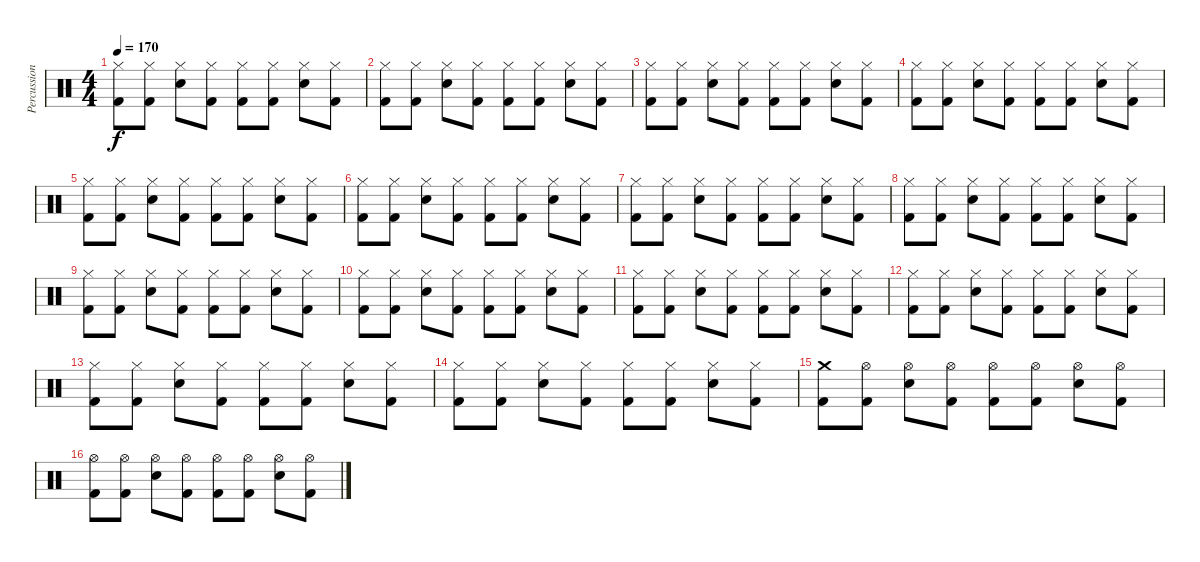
\track ("Percussion" "Percussion") {instrument percussion}
\staff {score}
\articulation defaults
\ts (4 4)
\tempo 170
\clef neutral
\ks c
("Hi-Hat (closed)" "Kick (hit) 2").8{dy f} ("Hi-Hat (closed)" "Kick (hit) 2").8 ("Hi-Hat (closed)" "Snare (hit) 2").8 ("Hi-Hat (closed)" "Kick (hit) 2").8 ("Hi-Hat (closed)" "Kick (hit) 2").8 ("Hi-Hat (closed)" "Kick (hit) 2").8 ("Hi-Hat (closed)" "Snare (hit) 2").8 ("Hi-Hat (closed)" "Kick (hit) 2").8 |
("Hi-Hat (closed)" "Kick (hit) 2").8 ("Hi-Hat (closed)" "Kick (hit) 2").8 ("Hi-Hat (closed)" "Snare (hit) 2").8 ("Hi-Hat (closed)" "Kick (hit) 2").8 ("Hi-Hat (closed)" "Kick (hit) 2").8 ("Hi-Hat (closed)" "Kick (hit) 2").8 ("Hi-Hat (closed)" "Snare (hit) 2").8 ("Hi-Hat (closed)" "Kick (hit) 2").8 |
("Hi-Hat (closed)" "Kick (hit) 2").8 ("Hi-Hat (closed)" "Kick (hit) 2").8 ("Hi-Hat (closed)" "Snare (hit) 2").8 ("Hi-Hat (closed)" "Kick (hit) 2").8 ("Hi-Hat (closed)" "Kick (hit) 2").8 ("Hi-Hat (closed)" "Kick (hit) 2").8 ("Hi-Hat (closed)" "Snare (hit) 2").8 ("Hi-Hat (closed)" "Kick (hit) 2").8 |
("Hi-Hat (closed)" "Kick (hit) 2").8 ("Hi-Hat (closed)" "Kick (hit) 2").8 ("Hi-Hat (closed)" "Snare (hit) 2").8 ("Hi-Hat (closed)" "Kick (hit) 2").8 ("Hi-Hat (closed)" "Kick (hit) 2").8 ("Hi-Hat (closed)" "Kick (hit) 2").8 ("Hi-Hat (closed)" "Snare (hit) 2").8 ("Hi-Hat (closed)" "Kick (hit) 2").8 |
("Hi-Hat (closed)" "Kick (hit) 2").8 ("Hi-Hat (closed)" "Kick (hit) 2").8 ("Hi-Hat (closed)" "Snare (hit) 2").8 ("Hi-Hat (closed)" "Kick (hit) 2").8 ("Hi-Hat (closed)" "Kick (hit) 2").8 ("Hi-Hat (closed)" "Kick (hit) 2").8 ("Hi-Hat (closed)" "Snare (hit) 2").8 ("Hi-Hat (closed)" "Kick (hit) 2").8 |
("Hi-Hat (closed)" "Kick (hit) 2").8 ("Hi-Hat (closed)" "Kick (hit) 2").8 ("Hi-Hat (closed)" "Snare (hit) 2").8 ("Hi-Hat (closed)" "Kick (hit) 2").8 ("Hi-Hat (closed)" "Kick (hit) 2").8 ("Hi-Hat (closed)" "Kick (hit) 2").8 ("Hi-Hat (closed)" "Snare (hit) 2").8 ("Hi-Hat (closed)" "Kick (hit) 2").8 |
("Hi-Hat (closed)" "Kick (hit) 2").8 ("Hi-Hat (closed)" "Kick (hit) 2").8 ("Hi-Hat (closed)" "Snare (hit) 2").8 ("Hi-Hat (closed)" "Kick (hit) 2").8 ("Hi-Hat (closed)" "Kick (hit) 2").8 ("Hi-Hat (closed)" "Kick (hit) 2").8 ("Hi-Hat (closed)" "Snare (hit) 2").8 ("Hi-Hat (closed)" "Kick (hit) 2").8 |
("Hi-Hat (closed)" "Kick (hit) 2").8 ("Hi-Hat (closed)" "Kick (hit) 2").8 ("Hi-Hat (closed)" "Snare (hit) 2").8 ("Hi-Hat (closed)" "Kick (hit) 2").8 ("Hi-Hat (closed)" "Kick (hit) 2").8 ("Hi-Hat (closed)" "Kick (hit) 2").8 ("Hi-Hat (closed)" "Snare (hit) 2").8 ("Hi-Hat (closed)" "Kick (hit) 2").8 |
("Hi-Hat (closed)" "Kick (hit) 2").8 ("Hi-Hat (closed)" "Kick (hit) 2").8 ("Hi-Hat (closed)" "Snare (hit) 2").8 ("Hi-Hat (closed)" "Kick (hit) 2").8 ("Hi-Hat (closed)" "Kick (hit) 2").8 ("Hi-Hat (closed)" "Kick (hit) 2").8 ("Hi-Hat (closed)" "Snare (hit) 2").8 ("Hi-Hat (closed)" "Kick (hit) 2").8 |
("Hi-Hat (closed)" "Kick (hit) 2").8 ("Hi-Hat (closed)" "Kick (hit) 2").8 ("Hi-Hat (closed)" "Snare (hit) 2").8 ("Hi-Hat (closed)" "Kick (hit) 2").8 ("Hi-Hat (closed)" "Kick (hit) 2").8 ("Hi-Hat (closed)" "Kick (hit) 2").8 ("Hi-Hat (closed)" "Snare (hit) 2").8 ("Hi-Hat (closed)" "Kick (hit) 2").8 |
("Hi-Hat (closed)" "Kick (hit) 2").8 ("Hi-Hat (closed)" "Kick (hit) 2").8 ("Hi-Hat (closed)" "Snare (hit) 2").8 ("Hi-Hat (closed)" "Kick (hit) 2").8 ("Hi-Hat (closed)" "Kick (hit) 2").8 ("Hi-Hat (closed)" "Kick (hit) 2").8 ("Hi-Hat (closed)" "Snare (hit) 2").8 ("Hi-Hat (closed)" "Kick (hit) 2").8 |
("Hi-Hat (closed)" "Kick (hit) 2").8 ("Hi-Hat (closed)" "Kick (hit) 2").8 ("Hi-Hat (closed)" "Snare (hit) 2").8 ("Hi-Hat (closed)" "Kick (hit) 2").8 ("Hi-Hat (closed)" "Kick (hit) 2").8 ("Hi-Hat (closed)" "Kick (hit) 2").8 ("Hi-Hat (closed)" "Snare (hit) 2").8 ("Hi-Hat (closed)" "Kick (hit) 2").8 |
("Hi-Hat (closed)" "Kick (hit) 2").8 ("Hi-Hat (closed)" "Kick (hit) 2").8 ("Hi-Hat (closed)" "Snare (hit) 2").8 ("Hi-Hat (closed)" "Kick (hit) 2").8 ("Hi-Hat (closed)" "Kick (hit) 2").8 ("Hi-Hat (closed)" "Kick (hit) 2").8 ("Hi-Hat (closed)" "Snare (hit) 2").8 ("Hi-Hat (closed)" "Kick (hit) 2").8 |
("Hi-Hat (closed)" "Kick (hit) 2").8 ("Hi-Hat (closed)" "Kick (hit) 2").8 ("Hi-Hat (closed)" "Snare (hit) 2").8 ("Hi-Hat (closed)" "Kick (hit) 2").8 ("Hi-Hat (closed)" "Kick (hit) 2").8 ("Hi-Hat (closed)" "Kick (hit) 2").8 ("Hi-Hat (closed)" "Snare (hit) 2").8 ("Hi-Hat (closed)" "Kick (hit) 2").8 |
("Crash medium (hit)" "Kick (hit) 2").8 ("Hi-Hat (open)" "Kick (hit) 2").8 ("Hi-Hat (open)" "Snare (hit) 2").8 ("Hi-Hat (open)" "Kick (hit) 2").8 ("Hi-Hat (open)" "Kick (hit) 2").8 ("Hi-Hat (open)" "Kick (hit) 2").8 ("Hi-Hat (open)" "Snare (hit) 2").8 ("Hi-Hat (open)" "Kick (hit) 2").8 |
("Hi-Hat (open)" "Kick (hit) 2").8 ("Hi-Hat (open)" "Kick (hit) 2").8 ("Hi-Hat (open)" "Snare (hit) 2").8 ("Hi-Hat (open)" "Kick (hit) 2").8 ("Hi-Hat (open)" "Kick (hit) 2").8 ("Hi-Hat (open)" "Kick (hit) 2").8 ("Hi-Hat (open)" "Snare (hit) 2").8 ("Hi-Hat (open)" "Kick (hit) 2").8
